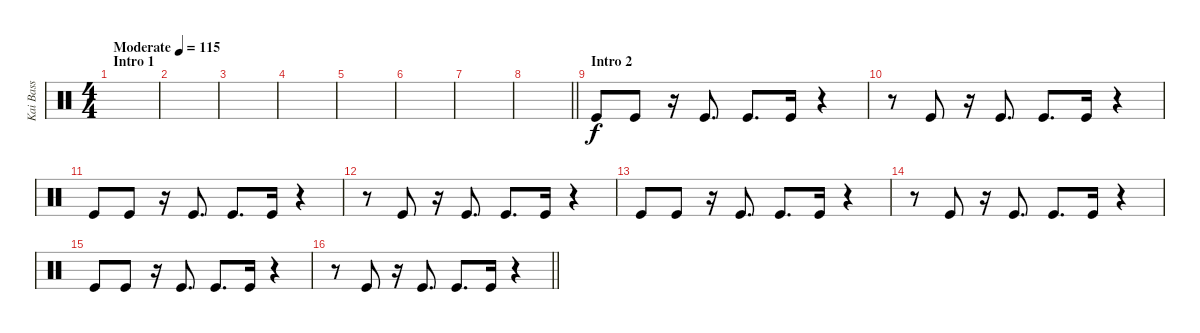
\track ("Kai Bass" "Kai Bass") {instrument percussion}
\staff {score}
\articulation defaults
\ts (4 4)
\section ("" "Intro 1")
\tempo (115 "Moderate")
\clef neutral
\ks c
|
|
|
|
|
|
|
\barLineRight lightlight
|
\section ("" "Intro 2")
"Kick (hit)".8 "Kick (hit)".8 r.16 "Kick (hit)".8{d} "Kick (hit)".8{d} "Kick (hit)".16 r.4 |
r.8 "Kick (hit)".8 r.16 "Kick (hit)".8{d} "Kick (hit)".8{d} "Kick (hit)".16 r.4 |
"Kick (hit)".8 "Kick (hit)".8 r.16 "Kick (hit)".8{d} "Kick (hit)".8{d} "Kick (hit)".16 r.4 |
r.8 "Kick (hit)".8 r.16 "Kick (hit)".8{d} "Kick (hit)".8{d} "Kick (hit)".16 r.4 |
"Kick (hit)".8 "Kick (hit)".8 r.16 "Kick (hit)".8{d} "Kick (hit)".8{d} "Kick (hit)".16 r.4 |
r.8 "Kick (hit)".8 r.16 "Kick (hit)".8{d} "Kick (hit)".8{d} "Kick (hit)".16 r.4 |
"Kick (hit)".8 "Kick (hit)".8 r.16 "Kick (hit)".8{d} "Kick (hit)".8{d} "Kick (hit)".16 r.4 |
\barLineRight lightlight
r.8 "Kick (hit)".8 r.16 "Kick (hit)".8{d} "Kick (hit)".8{d} "Kick (hit)".16 r.4
